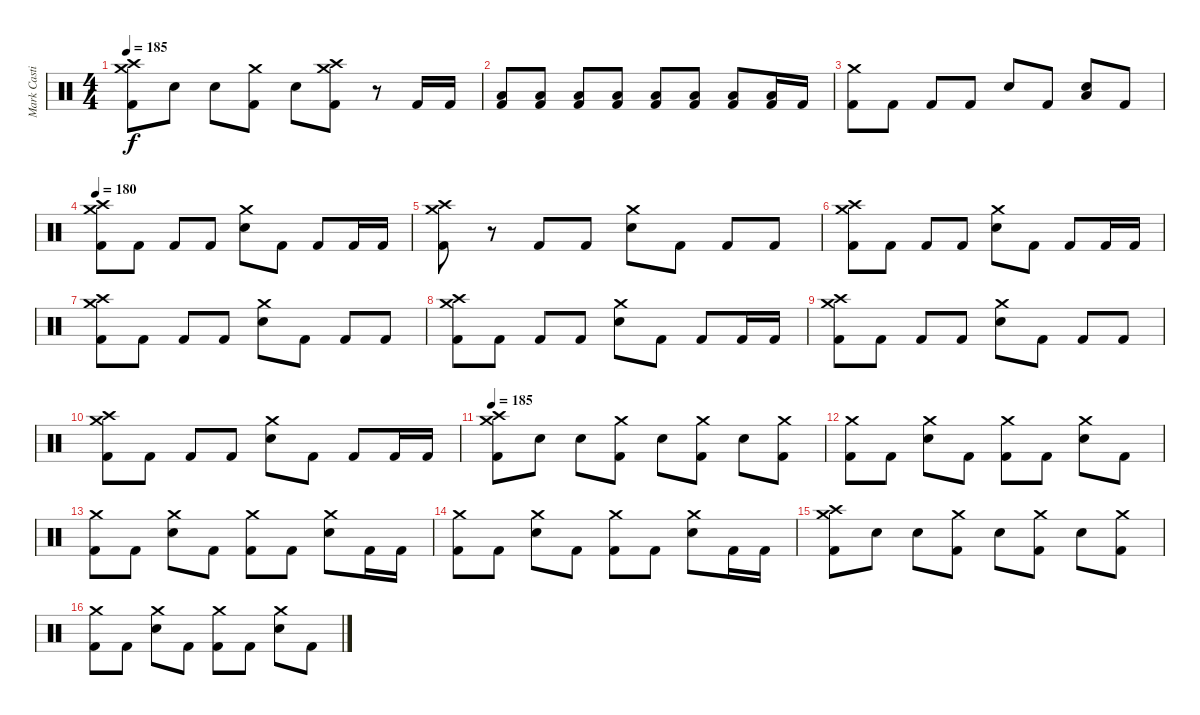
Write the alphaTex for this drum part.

\track ("Mark Castillo" "Mark Casti") {instrument percussion}
\staff {score}
\articulation defaults
\ts (4 4)
\tempo 185
\clef neutral
\ks c
("Kick (hit) 2" "Crash medium (hit)" "Crash high (hit)").8{dy f} "Electric Snare (hit)".8 "Electric Snare (hit)".8 ("Kick (hit) 2" "Crash medium (hit)").8 "Electric Snare (hit)".8 ("Kick (hit) 2" "Crash medium (hit)" "Crash high (hit)").8 r.8 "Kick (hit) 2".16 "Kick (hit) 2".16 |
("Kick (hit) 2" "Low Tom (hit)").8 ("Kick (hit) 2" "Low Tom (hit)").8 ("Kick (hit) 2" "Low Tom (hit)").8 ("Kick (hit) 2" "Low Tom (hit)").8 ("Kick (hit) 2" "Low Tom (hit)").8 ("Kick (hit) 2" "Low Tom (hit)").8 ("Kick (hit) 2" "Low Tom (hit)").8 ("Kick (hit) 2" "Low Tom (hit)").16 "Kick (hit) 2".16 |
("Kick (hit) 2" "Crash medium (hit)").8 "Kick (hit) 2".8 "Kick (hit) 2".8 "Kick (hit) 2".8 "Electric Snare (hit)".8 "Kick (hit) 2".8 ("Electric Snare (hit)" "Low Tom (hit)").8 "Kick (hit) 2".8 |
\tempo 180
("Kick (hit) 2" "Crash medium (hit)" "Crash high (hit)").8 "Kick (hit) 2".8 "Kick (hit) 2".8 "Kick (hit) 2".8 ("Electric Snare (hit)" "Crash medium (hit)").8 "Kick (hit) 2".8 "Kick (hit) 2".8 "Kick (hit) 2".16 "Kick (hit) 2".16 |
("Kick (hit) 2" "Crash medium (hit)" "Crash high (hit)").8 r.8 "Kick (hit) 2".8 "Kick (hit) 2".8 ("Electric Snare (hit)" "Crash medium (hit)").8 "Kick (hit) 2".8 "Kick (hit) 2".8 "Kick (hit) 2".8 |
("Kick (hit) 2" "Crash medium (hit)" "Crash high (hit)").8 "Kick (hit) 2".8 "Kick (hit) 2".8 "Kick (hit) 2".8 ("Electric Snare (hit)" "Crash medium (hit)").8 "Kick (hit) 2".8 "Kick (hit) 2".8 "Kick (hit) 2".16 "Kick (hit) 2".16 |
("Kick (hit) 2" "Crash medium (hit)" "Crash high (hit)").8 "Kick (hit) 2".8 "Kick (hit) 2".8 "Kick (hit) 2".8 ("Electric Snare (hit)" "Crash medium (hit)").8 "Kick (hit) 2".8 "Kick (hit) 2".8 "Kick (hit) 2".8 |
("Kick (hit) 2" "Crash medium (hit)" "Crash high (hit)").8 "Kick (hit) 2".8 "Kick (hit) 2".8 "Kick (hit) 2".8 ("Electric Snare (hit)" "Crash medium (hit)").8 "Kick (hit) 2".8 "Kick (hit) 2".8 "Kick (hit) 2".16 "Kick (hit) 2".16 |
("Kick (hit) 2" "Crash medium (hit)" "Crash high (hit)").8 "Kick (hit) 2".8 "Kick (hit) 2".8 "Kick (hit) 2".8 ("Electric Snare (hit)" "Crash medium (hit)").8 "Kick (hit) 2".8 "Kick (hit) 2".8 "Kick (hit) 2".8 |
("Kick (hit) 2" "Crash medium (hit)" "Crash high (hit)").8 "Kick (hit) 2".8 "Kick (hit) 2".8 "Kick (hit) 2".8 ("Electric Snare (hit)" "Crash medium (hit)").8 "Kick (hit) 2".8 "Kick (hit) 2".8 "Kick (hit) 2".16 "Kick (hit) 2".16 |
\tempo 185
("Kick (hit) 2" "Crash medium (hit)" "Crash high (hit)").8 "Electric Snare (hit)".8 "Electric Snare (hit)".8 ("Kick (hit) 2" "Crash medium (hit)").8 "Electric Snare (hit)".8 ("Kick (hit) 2" "Crash medium (hit)").8 "Electric Snare (hit)".8 ("Kick (hit) 2" "Crash medium (hit)").8 |
("Kick (hit) 2" "Crash medium (hit)").8 "Kick (hit) 2".8 ("Electric Snare (hit)" "Crash medium (hit)").8 "Kick (hit) 2".8 ("Kick (hit) 2" "Crash medium (hit)").8 "Kick (hit) 2".8 ("Electric Snare (hit)" "Crash medium (hit)").8 "Kick (hit) 2".8 |
("Kick (hit) 2" "Crash medium (hit)").8 "Kick (hit) 2".8 ("Electric Snare (hit)" "Crash medium (hit)").8 "Kick (hit) 2".8 ("Kick (hit) 2" "Crash medium (hit)").8 "Kick (hit) 2".8 ("Electric Snare (hit)" "Crash medium (hit)").8 "Kick (hit) 2".16 "Kick (hit) 2".16 |
("Kick (hit) 2" "Crash medium (hit)").8 "Kick (hit) 2".8 ("Electric Snare (hit)" "Crash medium (hit)").8 "Kick (hit) 2".8 ("Kick (hit) 2" "Crash medium (hit)").8 "Kick (hit) 2".8 ("Electric Snare (hit)" "Crash medium (hit)").8 "Kick (hit) 2".16 "Kick (hit) 2".16 |
("Kick (hit) 2" "Crash medium (hit)" "Crash high (hit)").8 "Electric Snare (hit)".8 "Electric Snare (hit)".8 ("Kick (hit) 2" "Crash medium (hit)").8 "Electric Snare (hit)".8 ("Kick (hit) 2" "Crash medium (hit)").8 "Electric Snare (hit)".8 ("Kick (hit) 2" "Crash medium (hit)").8 |
("Kick (hit) 2" "Crash medium (hit)").8 "Kick (hit) 2".8 ("Electric Snare (hit)" "Crash medium (hit)").8 "Kick (hit) 2".8 ("Kick (hit) 2" "Crash medium (hit)").8 "Kick (hit) 2".8 ("Electric Snare (hit)" "Crash medium (hit)").8 "Kick (hit) 2".8
